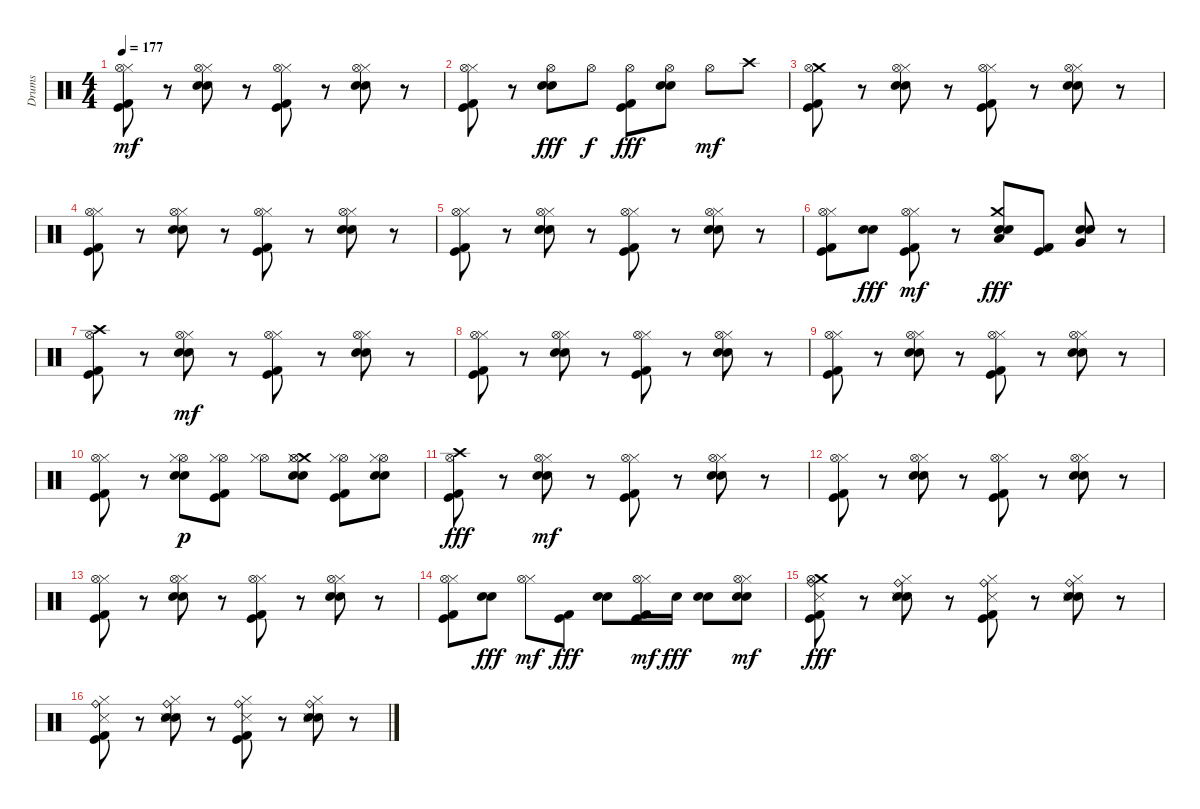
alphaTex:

\track ("Drums" "Drums") {instrument percussion}
\staff {score}
\articulation defaults
\ts (4 4)
\tempo 177
\clef neutral
\ks c
("Hi-Hat (closed)" "Kick (hit) 2" "Kick (hit)" "Hi-Hat (open)").8{dy mf} r.8 ("Hi-Hat (closed)" "Electric Snare (hit)" "Snare (hit) 2" "Hi-Hat (open)").8 r.8 ("Hi-Hat (closed)" "Kick (hit) 2" "Kick (hit)" "Hi-Hat (open)").8 r.8 ("Hi-Hat (closed)" "Electric Snare (hit)" "Snare (hit) 2" "Hi-Hat (open)").8 r.8 |
("Kick (hit) 2" "Kick (hit)" "Hi-Hat (closed)" "Hi-Hat (open)").8 r.8 ("Hi-Hat (open)" "Electric Snare (hit)" "Snare (hit) 2").8{dy fff} "Hi-Hat (open)".8{dy f} ("Hi-Hat (open)" "Kick (hit) 2" "Kick (hit)").8{dy fff} ("Hi-Hat (open)" "Electric Snare (hit)" "Snare (hit) 2").8 "Hi-Hat (open)".8{dy mf} "Crash high (hit)".8 |
("Kick (hit) 2" "Kick (hit)" "Crash medium (hit)" "Hi-Hat (open)").8 r.8 ("Hi-Hat (closed)" "Electric Snare (hit)" "Snare (hit) 2" "Hi-Hat (open)").8 r.8 ("Hi-Hat (closed)" "Kick (hit) 2" "Kick (hit)" "Hi-Hat (open)").8 r.8 ("Hi-Hat (closed)" "Electric Snare (hit)" "Snare (hit) 2" "Hi-Hat (open)").8 r.8 |
("Hi-Hat (closed)" "Kick (hit) 2" "Kick (hit)" "Hi-Hat (open)").8 r.8 ("Hi-Hat (closed)" "Electric Snare (hit)" "Snare (hit) 2" "Hi-Hat (open)").8 r.8 ("Hi-Hat (closed)" "Kick (hit) 2" "Kick (hit)" "Hi-Hat (open)").8 r.8 ("Hi-Hat (closed)" "Electric Snare (hit)" "Snare (hit) 2" "Hi-Hat (open)").8 r.8 |
("Hi-Hat (closed)" "Kick (hit) 2" "Kick (hit)" "Hi-Hat (open)").8 r.8 ("Hi-Hat (closed)" "Electric Snare (hit)" "Snare (hit) 2" "Hi-Hat (open)").8 r.8 ("Hi-Hat (closed)" "Kick (hit) 2" "Kick (hit)" "Hi-Hat (open)").8 r.8 ("Hi-Hat (closed)" "Electric Snare (hit)" "Snare (hit) 2" "Hi-Hat (open)").8 r.8 |
("Kick (hit) 2" "Kick (hit)" "Hi-Hat (closed)" "Hi-Hat (open)").8 ("Electric Snare (hit)" "Snare (hit) 2").8{dy fff} ("Kick (hit) 2" "Kick (hit)" "Hi-Hat (closed)" "Hi-Hat (open)").8{dy mf} r.8 ("Electric Snare (hit)" "Snare (hit) 2" "Crash medium (hit)" "Low Tom (hit)").8{dy fff} ("Kick (hit) 2" "Kick (hit)").8 ("Electric Snare (hit)" "Snare (hit) 2" "Very Low Tom (hit)").8 r.8 |
("Crash high (hit)" "Kick (hit) 2" "Kick (hit)" "Hi-Hat (open)").8 r.8 ("Hi-Hat (closed)" "Electric Snare (hit)" "Snare (hit) 2" "Hi-Hat (open)").8{dy mf} r.8 ("Hi-Hat (closed)" "Kick (hit) 2" "Kick (hit)" "Hi-Hat (open)").8 r.8 ("Hi-Hat (closed)" "Electric Snare (hit)" "Snare (hit) 2" "Hi-Hat (open)").8 r.8 |
("Hi-Hat (closed)" "Kick (hit) 2" "Kick (hit)" "Hi-Hat (open)").8 r.8 ("Hi-Hat (closed)" "Electric Snare (hit)" "Snare (hit) 2" "Hi-Hat (open)").8 r.8 ("Hi-Hat (closed)" "Kick (hit) 2" "Kick (hit)" "Hi-Hat (open)").8 r.8 ("Hi-Hat (closed)" "Electric Snare (hit)" "Snare (hit) 2" "Hi-Hat (open)").8 r.8 |
("Hi-Hat (closed)" "Kick (hit) 2" "Kick (hit)" "Hi-Hat (open)").8 r.8 ("Hi-Hat (closed)" "Electric Snare (hit)" "Snare (hit) 2" "Hi-Hat (open)").8 r.8 ("Hi-Hat (closed)" "Kick (hit) 2" "Kick (hit)" "Hi-Hat (open)").8 r.8 ("Hi-Hat (closed)" "Electric Snare (hit)" "Snare (hit) 2" "Hi-Hat (open)").8 r.8 |
("Kick (hit)" "Kick (hit) 2" "Hi-Hat (closed)" "Hi-Hat (open)").8 r.8 ("Electric Snare (hit)" "Snare (hit) 2" "Hi-Hat (open)" "Hi-Hat (closed)").8{dy p} ("Kick (hit) 2" "Kick (hit)" "Hi-Hat (open)" "Hi-Hat (closed)").8 ("Hi-Hat (open)" "Hi-Hat (closed)").8 ("Electric Snare (hit)" "Snare (hit) 2" "Crash medium (hit)" "Hi-Hat (open)" "Hi-Hat (closed)").8 ("Kick (hit) 2" "Kick (hit)" "Hi-Hat (open)" "Hi-Hat (closed)").8 ("Electric Snare (hit)" "Snare (hit) 2" "Hi-Hat (open)" "Hi-Hat (closed)").8 |
("Crash high (hit)" "Kick (hit) 2" "Kick (hit)" "Hi-Hat (open)").8{dy fff} r.8 ("Hi-Hat (closed)" "Electric Snare (hit)" "Snare (hit) 2" "Hi-Hat (open)").8{dy mf} r.8 ("Hi-Hat (closed)" "Kick (hit) 2" "Kick (hit)" "Hi-Hat (open)").8 r.8 ("Hi-Hat (closed)" "Electric Snare (hit)" "Snare (hit) 2" "Hi-Hat (open)").8 r.8 |
("Hi-Hat (closed)" "Kick (hit) 2" "Kick (hit)" "Hi-Hat (open)").8 r.8 ("Hi-Hat (closed)" "Electric Snare (hit)" "Snare (hit) 2" "Hi-Hat (open)").8 r.8 ("Hi-Hat (closed)" "Kick (hit) 2" "Kick (hit)" "Hi-Hat (open)").8 r.8 ("Hi-Hat (closed)" "Electric Snare (hit)" "Snare (hit) 2" "Hi-Hat (open)").8 r.8 |
("Hi-Hat (closed)" "Kick (hit) 2" "Kick (hit)" "Hi-Hat (open)").8 r.8 ("Hi-Hat (closed)" "Electric Snare (hit)" "Snare (hit) 2" "Hi-Hat (open)").8 r.8 ("Hi-Hat (closed)" "Kick (hit) 2" "Kick (hit)" "Hi-Hat (open)").8 r.8 ("Hi-Hat (closed)" "Electric Snare (hit)" "Snare (hit) 2" "Hi-Hat (open)").8 r.8 |
("Kick (hit)" "Kick (hit) 2" "Hi-Hat (closed)" "Hi-Hat (open)").8 ("Electric Snare (hit)" "Snare (hit) 2").8{dy fff} ("Hi-Hat (closed)" "Hi-Hat (open)").8{dy mf} ("Kick (hit) 2" "Kick (hit)").8{dy fff} ("Electric Snare (hit)" "Snare (hit) 2").8 ("Kick (hit) 2" "Kick (hit)" "Hi-Hat (closed)" "Hi-Hat (open)").16{dy mf} "Snare (hit) 2".16{dy fff} ("Electric Snare (hit)" "Snare (hit) 2").8 ("Electric Snare (hit)" "Snare (hit) 2" "Hi-Hat (closed)" "Hi-Hat (open)").8{dy mf} |
("Crash medium (hit)" "Kick (hit) 2" "Kick (hit)" "Hi-Hat (open)" "Snare (side stick) 3" "Ride (bell)").8{dy fff} r.8 ("Hi-Hat (closed)" "Electric Snare (hit)" "Snare (hit) 2" "Snare (side stick) 3" "Ride (bell)").8 r.8 ("Hi-Hat (closed)" "Kick (hit) 2" "Kick (hit)" "Snare (side stick) 3" "Ride (bell)").8 r.8 ("Hi-Hat (closed)" "Electric Snare (hit)" "Snare (hit) 2" "Snare (side stick) 3" "Ride (bell)").8 r.8 |
("Hi-Hat (closed)" "Kick (hit) 2" "Kick (hit)" "Snare (side stick) 3" "Ride (bell)").8 r.8 ("Hi-Hat (closed)" "Electric Snare (hit)" "Snare (hit) 2" "Snare (side stick) 3" "Ride (bell)").8 r.8 ("Hi-Hat (closed)" "Kick (hit) 2" "Kick (hit)" "Snare (side stick) 3" "Ride (bell)").8 r.8 ("Hi-Hat (closed)" "Electric Snare (hit)" "Snare (hit) 2" "Snare (side stick) 3" "Ride (bell)").8 r.8
